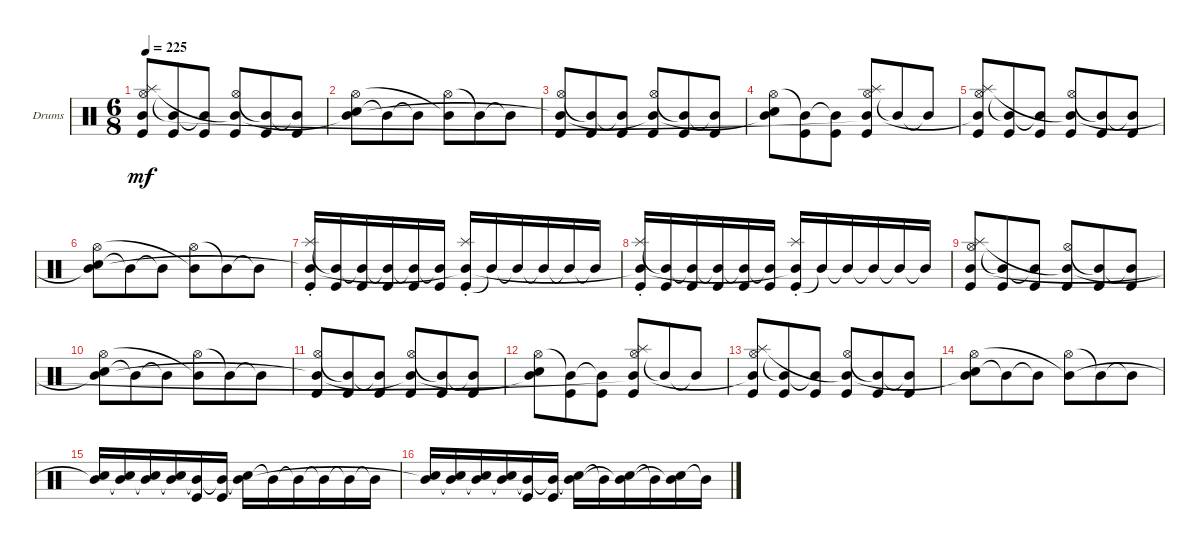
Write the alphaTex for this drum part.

\bracketExtendMode groupsimilarinstruments
\firstSystemTrackNameOrientation horizontal
\otherSystemsTrackNameOrientation horizontal
\track ("Drumkit" "Drums") {solo instrument percussion}
\staff {score}
\articulation defaults
\ts (6 8)
\tempo 225
\clef neutral
\ks c
("Kick (hit)" "Hi-Hat (open)" "Splash (hit)" "Mid Tom (hit)").8{dy mf} ("Kick (hit)" "Mid Tom (hit)"{t}).8 ("Kick (hit)" "Mid Tom (hit)"{t}).8 ("Kick (hit)" "Hi-Hat (open)" "Mid Tom (hit)"{t}).8 ("Kick (hit)" "Mid Tom (hit)"{t}).8 ("Kick (hit)" "Mid Tom (hit)"{t}).8 |
("Snare (hit) 2" "Hi-Hat (open)" "Mid Tom (hit)"{t}).8 "Mid Tom (hit)"{t}.8 "Mid Tom (hit)"{t}.8 ("Hi-Hat (open)" "Mid Tom (hit)"{t}).8 "Mid Tom (hit)"{t}.8 "Mid Tom (hit)"{t}.8 |
("Kick (hit)" "Hi-Hat (open)" "Mid Tom (hit)"{t}).8 ("Kick (hit)" "Mid Tom (hit)"{t}).8 ("Kick (hit)" "Mid Tom (hit)"{t}).8 ("Kick (hit)" "Hi-Hat (open)" "Mid Tom (hit)"{t}).8 ("Kick (hit)" "Mid Tom (hit)"{t}).8 ("Kick (hit)" "Mid Tom (hit)"{t}).8 |
("Snare (hit) 2" "Hi-Hat (open)" "Mid Tom (hit)"{t}).8 ("Kick (hit)" "Mid Tom (hit)"{t}).8 ("Kick (hit)" "Mid Tom (hit)"{t}).8 ("Hi-Hat (open)" "Kick (hit)" "Splash (hit)" "Mid Tom (hit)"{t}).8 "Mid Tom (hit)"{t}.8 "Mid Tom (hit)"{t}.8 |
("Kick (hit)" "Hi-Hat (open)" "Splash (hit)" "Mid Tom (hit)"{t}).8 ("Kick (hit)" "Mid Tom (hit)"{t}).8 ("Kick (hit)" "Mid Tom (hit)"{t}).8 ("Kick (hit)" "Hi-Hat (open)" "Mid Tom (hit)"{t}).8 ("Kick (hit)" "Mid Tom (hit)"{t}).8 ("Kick (hit)" "Mid Tom (hit)"{t}).8 |
("Snare (hit) 2" "Hi-Hat (open)" "Mid Tom (hit)"{t}).8 "Mid Tom (hit)"{t}.8 "Mid Tom (hit)"{t}.8 ("Hi-Hat (open)" "Mid Tom (hit)"{t}).8 "Mid Tom (hit)"{t}.8 "Mid Tom (hit)"{t}.8 |
("Kick (hit)" "Splash (hit)"{st} "Mid Tom (hit)"{t}).16 ("Kick (hit)" "Mid Tom (hit)"{t}).16 ("Kick (hit)" "Mid Tom (hit)"{t}).16 ("Kick (hit)" "Mid Tom (hit)"{t}).16 ("Kick (hit)" "Mid Tom (hit)"{t}).16 ("Kick (hit)" "Mid Tom (hit)"{t}).16 ("Kick (hit)" "Splash (hit)"{st} "Mid Tom (hit)"{t}).16 "Mid Tom (hit)"{t}.16 "Mid Tom (hit)"{t}.16 "Mid Tom (hit)"{t}.16 "Mid Tom (hit)"{t}.16 "Mid Tom (hit)"{t}.16 |
("Kick (hit)" "Splash (hit)"{st} "Mid Tom (hit)"{t}).16 ("Kick (hit)" "Mid Tom (hit)"{t}).16 ("Kick (hit)" "Mid Tom (hit)"{t}).16 ("Kick (hit)" "Mid Tom (hit)"{t}).16 ("Kick (hit)" "Mid Tom (hit)"{t}).16 ("Kick (hit)" "Mid Tom (hit)"{t}).16 ("Kick (hit)" "Splash (hit)"{st} "Mid Tom (hit)"{t}).16 "Mid Tom (hit)"{t}.16 "Mid Tom (hit)"{t}.16 "Mid Tom (hit)"{t}.16 "Mid Tom (hit)"{t}.16 "Mid Tom (hit)"{t}.16 |
("Kick (hit)" "Hi-Hat (open)" "Splash (hit)" "Mid Tom (hit)").8 ("Kick (hit)" "Mid Tom (hit)"{t}).8 ("Kick (hit)" "Mid Tom (hit)"{t}).8 ("Kick (hit)" "Hi-Hat (open)" "Mid Tom (hit)"{t}).8 ("Kick (hit)" "Mid Tom (hit)"{t}).8 ("Kick (hit)" "Mid Tom (hit)"{t}).8 |
("Snare (hit) 2" "Hi-Hat (open)" "Mid Tom (hit)"{t}).8 "Mid Tom (hit)"{t}.8 "Mid Tom (hit)"{t}.8 ("Hi-Hat (open)" "Mid Tom (hit)"{t}).8 "Mid Tom (hit)"{t}.8 "Mid Tom (hit)"{t}.8 |
("Kick (hit)" "Hi-Hat (open)" "Mid Tom (hit)"{t}).8 ("Kick (hit)" "Mid Tom (hit)"{t}).8 ("Kick (hit)" "Mid Tom (hit)"{t}).8 ("Kick (hit)" "Hi-Hat (open)" "Mid Tom (hit)"{t}).8 ("Kick (hit)" "Mid Tom (hit)"{t}).8 ("Kick (hit)" "Mid Tom (hit)"{t}).8 |
("Snare (hit) 2" "Hi-Hat (open)" "Mid Tom (hit)"{t}).8 ("Kick (hit)" "Mid Tom (hit)"{t}).8 ("Kick (hit)" "Mid Tom (hit)"{t}).8 ("Hi-Hat (open)" "Kick (hit)" "Splash (hit)" "Mid Tom (hit)"{t}).8 "Mid Tom (hit)"{t}.8 "Mid Tom (hit)"{t}.8 |
("Kick (hit)" "Hi-Hat (open)" "Splash (hit)" "Mid Tom (hit)"{t}).8 ("Kick (hit)" "Mid Tom (hit)"{t}).8 ("Kick (hit)" "Mid Tom (hit)"{t}).8 ("Kick (hit)" "Hi-Hat (open)" "Mid Tom (hit)"{t}).8 ("Kick (hit)" "Mid Tom (hit)"{t}).8 ("Kick (hit)" "Mid Tom (hit)"{t}).8 |
("Snare (hit) 2" "Hi-Hat (open)" "Mid Tom (hit)"{t}).8 "Mid Tom (hit)"{t}.8 "Mid Tom (hit)"{t}.8 ("Hi-Hat (open)" "Mid Tom (hit)"{t}).8 "Mid Tom (hit)"{t}.8 "Mid Tom (hit)"{t}.8 |
("Snare (hit) 2" "Mid Tom (hit)"{t}).16 ("Snare (hit) 2" "Mid Tom (hit)"{t}).16 ("Snare (hit) 2" "Mid Tom (hit)"{t}).16 ("Snare (hit) 2" "Mid Tom (hit)"{t}).16 ("Kick (hit)" "Mid Tom (hit)"{t}).16 ("Kick (hit)" "Mid Tom (hit)"{t}).16 ("Snare (hit) 2" "Mid Tom (hit)"{t}).16 "Mid Tom (hit)"{t}.16 "Mid Tom (hit)"{t}.16 "Mid Tom (hit)"{t}.16 "Mid Tom (hit)"{t}.16 "Mid Tom (hit)"{t}.16 |
("Snare (hit) 2" "Mid Tom (hit)"{t}).16 ("Snare (hit) 2" "Mid Tom (hit)"{t}).16 ("Snare (hit) 2" "Mid Tom (hit)"{t}).16 ("Snare (hit) 2" "Mid Tom (hit)"{t}).16 ("Kick (hit)" "Mid Tom (hit)"{t}).16 ("Kick (hit)" "Mid Tom (hit)"{t}).16 ("Snare (hit) 2" "Mid Tom (hit)"{t}).16 "Mid Tom (hit)"{t}.16 ("Snare (hit) 2" "Mid Tom (hit)"{t}).16 "Mid Tom (hit)"{t}.16 ("Snare (hit) 2" "Mid Tom (hit)"{t}).16 "Mid Tom (hit)"{t}.16
